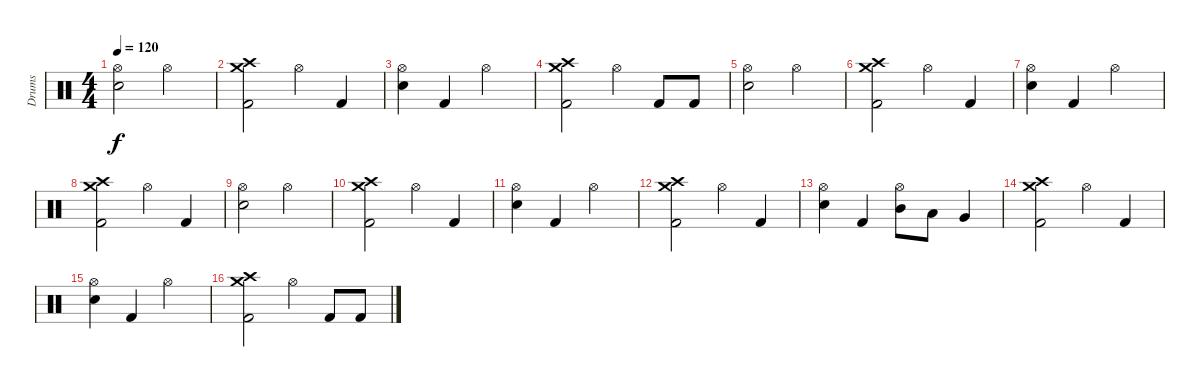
\track ("Drums" "Drums") {instrument percussion}
\staff {score}
\articulation defaults
\ts (4 4)
\tempo 120
\clef neutral
\ks c
("Hi-Hat (open)" "Snare (hit) 2").2{dy f} "Hi-Hat (open)".2 |
("Crash high (hit)" "Crash medium (hit)" "Kick (hit) 2").2 "Hi-Hat (open)".4 "Kick (hit) 2".4 |
("Hi-Hat (open)" "Snare (hit) 2").4 "Kick (hit) 2".4 "Hi-Hat (open)".2 |
("Crash high (hit)" "Crash medium (hit)" "Kick (hit) 2").2 "Hi-Hat (open)".4 "Kick (hit) 2".8 "Kick (hit) 2".8 |
("Hi-Hat (open)" "Snare (hit) 2").2 "Hi-Hat (open)".2 |
("Crash high (hit)" "Crash medium (hit)" "Kick (hit) 2").2 "Hi-Hat (open)".4 "Kick (hit) 2".4 |
("Hi-Hat (open)" "Snare (hit) 2").4 "Kick (hit) 2".4 "Hi-Hat (open)".2 |
("Crash high (hit)" "Crash medium (hit)" "Kick (hit) 2").2 "Hi-Hat (open)".4 "Kick (hit) 2".4 |
("Hi-Hat (open)" "Snare (hit) 2").2 "Hi-Hat (open)".2 |
("Crash high (hit)" "Crash medium (hit)" "Kick (hit) 2").2 "Hi-Hat (open)".4 "Kick (hit) 2".4 |
("Hi-Hat (open)" "Snare (hit) 2").4 "Kick (hit) 2".4 "Hi-Hat (open)".2 |
("Crash high (hit)" "Crash medium (hit)" "Kick (hit) 2").2 "Hi-Hat (open)".4 "Kick (hit) 2".4 |
("Hi-Hat (open)" "Snare (hit) 2").4 "Kick (hit) 2".4 ("Hi-Hat (open)" "Mid Tom (hit)").8 "Low Tom (hit)".8 "Very Low Tom (hit)".4 |
("Crash high (hit)" "Crash medium (hit)" "Kick (hit) 2").2 "Hi-Hat (open)".4 "Kick (hit) 2".4 |
("Hi-Hat (open)" "Snare (hit) 2").4 "Kick (hit) 2".4 "Hi-Hat (open)".2 |
("Crash high (hit)" "Crash medium (hit)" "Kick (hit) 2").2 "Hi-Hat (open)".4 "Kick (hit) 2".8 "Kick (hit) 2".8
